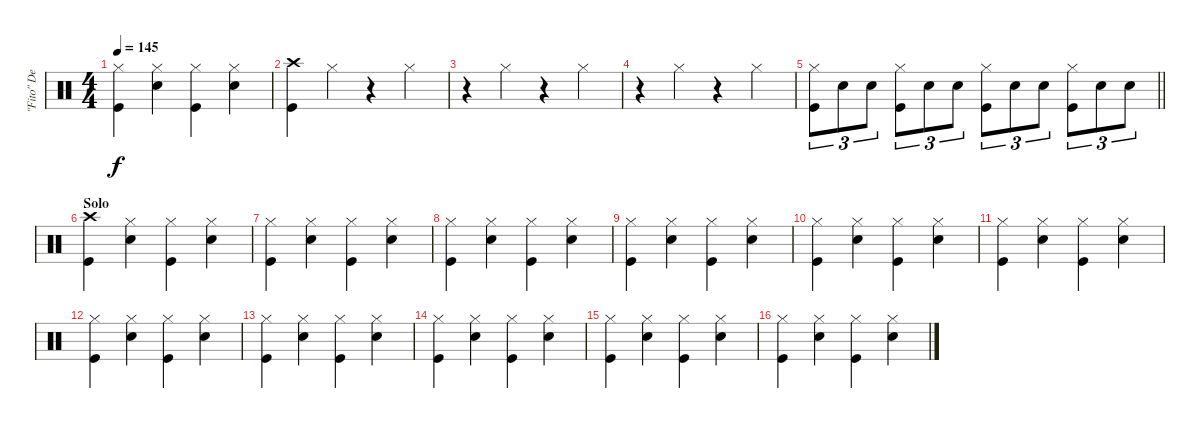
\track ("\"Fito\" De La Parra" "\"Fito\" De ") {instrument percussion}
\staff {score}
\articulation defaults
\ts (4 4)
\tempo 145
\clef neutral
\ks c
("Hi-Hat (closed)" "Kick (hit)").4{dy f} ("Hi-Hat (closed)" "Snare (hit) 2").4 ("Hi-Hat (closed)" "Kick (hit)").4 ("Hi-Hat (closed)" "Snare (hit) 2").4 |
("Crash high (hit)" "Kick (hit)").4 "Hi-Hat (closed)".4 r.4 "Hi-Hat (closed)".4 |
r.4 "Hi-Hat (closed)".4 r.4 "Hi-Hat (closed)".4 |
r.4 "Hi-Hat (closed)".4 r.4 "Hi-Hat (closed)".4 |
\barLineRight lightlight
("Hi-Hat (closed)" "Kick (hit)").8{tu (3 2)} "Snare (hit) 2".8{tu (3 2)} "Snare (hit) 2".8{tu (3 2)} ("Hi-Hat (closed)" "Kick (hit)").8{tu (3 2)} "Snare (hit) 2".8{tu (3 2)} "Snare (hit) 2".8{tu (3 2)} ("Hi-Hat (closed)" "Kick (hit)").8{tu (3 2)} "Snare (hit) 2".8{tu (3 2)} "Snare (hit) 2".8{tu (3 2)} ("Hi-Hat (closed)" "Kick (hit)").8{tu (3 2)} "Snare (hit) 2".8{tu (3 2)} "Snare (hit) 2".8{tu (3 2)} |
\section ("" "Solo")
("Crash high (hit)" "Kick (hit)").4 ("Hi-Hat (closed)" "Snare (hit) 2").4 ("Hi-Hat (closed)" "Kick (hit)").4 ("Hi-Hat (closed)" "Snare (hit) 2").4 |
("Hi-Hat (closed)" "Kick (hit)").4 ("Hi-Hat (closed)" "Snare (hit) 2").4 ("Hi-Hat (closed)" "Kick (hit)").4 ("Hi-Hat (closed)" "Snare (hit) 2").4 |
("Hi-Hat (closed)" "Kick (hit)").4 ("Hi-Hat (closed)" "Snare (hit) 2").4 ("Hi-Hat (closed)" "Kick (hit)").4 ("Hi-Hat (closed)" "Snare (hit) 2").4 |
("Hi-Hat (closed)" "Kick (hit)").4 ("Hi-Hat (closed)" "Snare (hit) 2").4 ("Hi-Hat (closed)" "Kick (hit)").4 ("Hi-Hat (closed)" "Snare (hit) 2").4 |
("Hi-Hat (closed)" "Kick (hit)").4 ("Hi-Hat (closed)" "Snare (hit) 2").4 ("Hi-Hat (closed)" "Kick (hit)").4 ("Hi-Hat (closed)" "Snare (hit) 2").4 |
("Hi-Hat (closed)" "Kick (hit)").4 ("Hi-Hat (closed)" "Snare (hit) 2").4 ("Hi-Hat (closed)" "Kick (hit)").4 ("Hi-Hat (closed)" "Snare (hit) 2").4 |
("Hi-Hat (closed)" "Kick (hit)").4 ("Hi-Hat (closed)" "Snare (hit) 2").4 ("Hi-Hat (closed)" "Kick (hit)").4 ("Hi-Hat (closed)" "Snare (hit) 2").4 |
("Hi-Hat (closed)" "Kick (hit)").4 ("Hi-Hat (closed)" "Snare (hit) 2").4 ("Hi-Hat (closed)" "Kick (hit)").4 ("Hi-Hat (closed)" "Snare (hit) 2").4 |
("Hi-Hat (closed)" "Kick (hit)").4 ("Hi-Hat (closed)" "Snare (hit) 2").4 ("Hi-Hat (closed)" "Kick (hit)").4 ("Hi-Hat (closed)" "Snare (hit) 2").4 |
("Hi-Hat (closed)" "Kick (hit)").4 ("Hi-Hat (closed)" "Snare (hit) 2").4 ("Hi-Hat (closed)" "Kick (hit)").4 ("Hi-Hat (closed)" "Snare (hit) 2").4 |
("Hi-Hat (closed)" "Kick (hit)").4 ("Hi-Hat (closed)" "Snare (hit) 2").4 ("Hi-Hat (closed)" "Kick (hit)").4 ("Hi-Hat (closed)" "Snare (hit) 2").4
